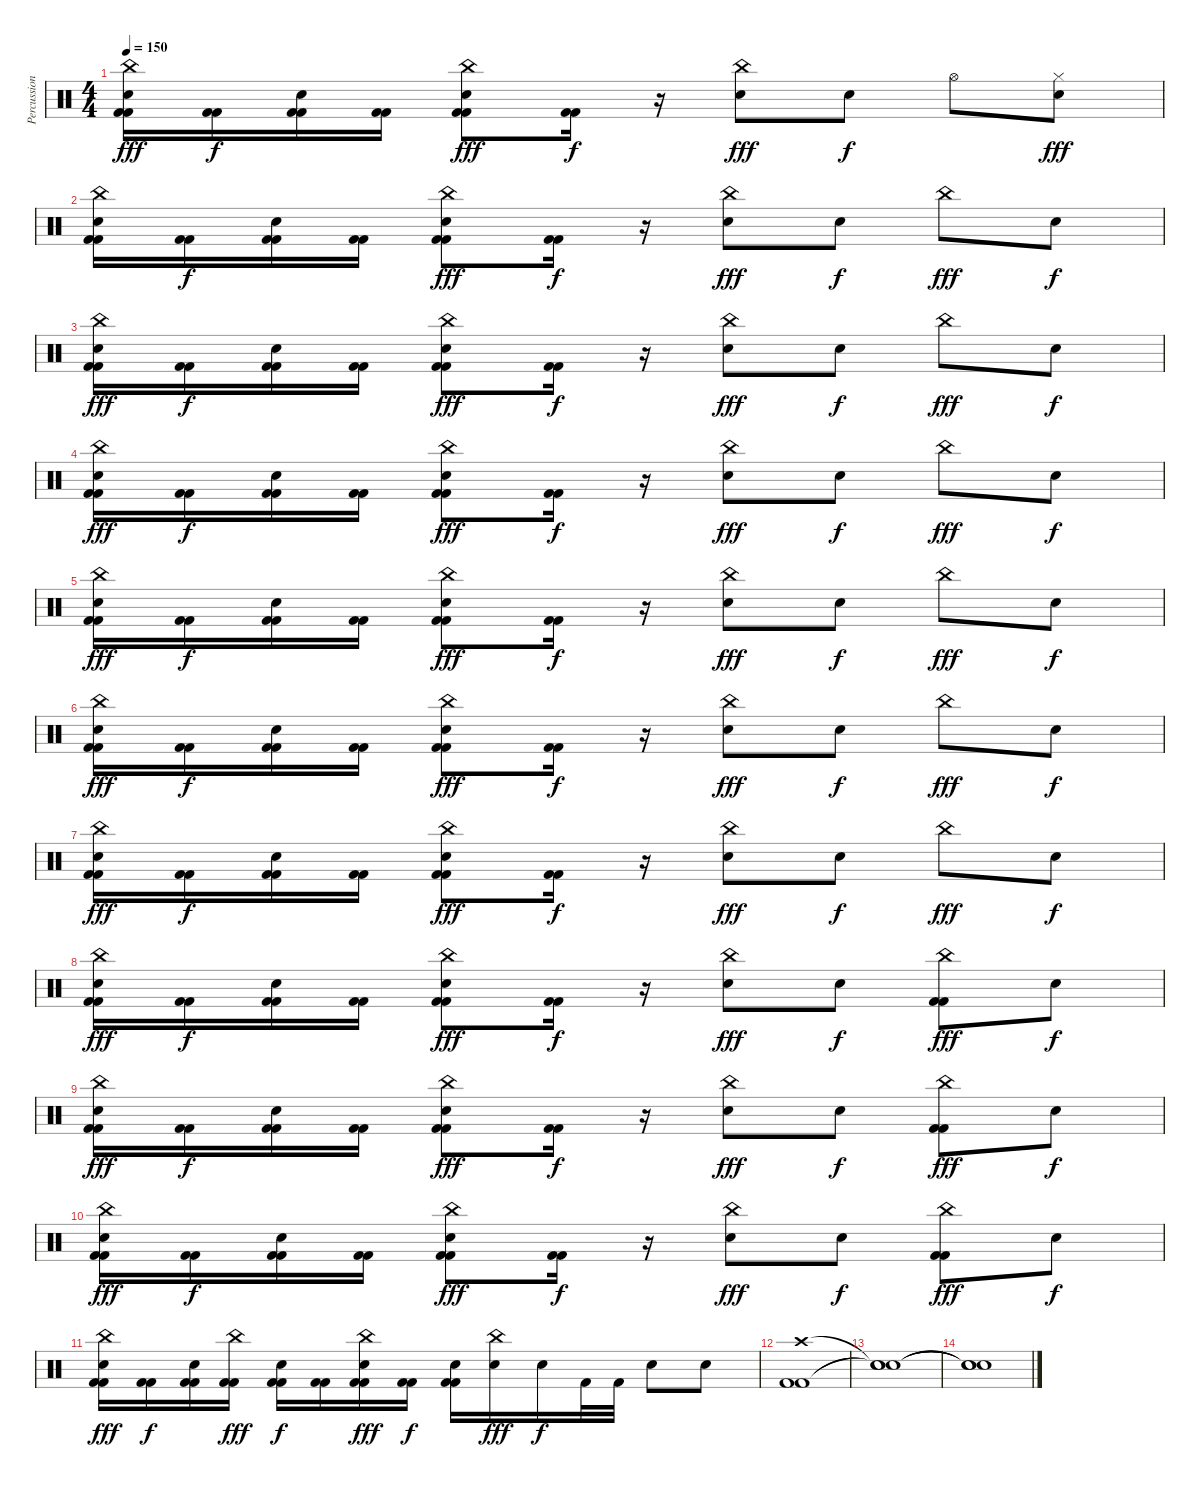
\track ("Percussions" "Percussion") {instrument percussion}
\staff {score}
\articulation defaults
\ts (4 4)
\tempo 150
\clef neutral
\ks c
("Kick (hit) 2" "Kick (hit) 2" "Electric Snare (hit)" "China (hit)").16{dy fff} ("Kick (hit) 2" "Kick (hit) 2").16{dy f} ("Kick (hit) 2" "Kick (hit) 2" "Electric Snare (hit)").16 ("Kick (hit) 2" "Kick (hit) 2").16 ("Kick (hit) 2" "Kick (hit) 2" "Electric Snare (hit)" "China (hit)").8{dy fff} ("Kick (hit) 2" "Kick (hit) 2").16{dy f} r.16 ("Electric Snare (hit)" "China (hit)").8{dy fff} "Electric Snare (hit)".8{dy f} "Hi-Hat (open)".8 ("Electric Snare (hit)" "Hi-Hat (closed)").8{dy fff} |
("Kick (hit) 2" "Kick (hit) 2" "Electric Snare (hit)" "China (hit)").16 ("Kick (hit) 2" "Kick (hit) 2").16{dy f} ("Kick (hit) 2" "Kick (hit) 2" "Electric Snare (hit)").16 ("Kick (hit) 2" "Kick (hit) 2").16 ("Kick (hit) 2" "Kick (hit) 2" "Electric Snare (hit)" "China (hit)").8{dy fff} ("Kick (hit) 2" "Kick (hit) 2").16{dy f} r.16 ("Electric Snare (hit)" "China (hit)").8{dy fff} "Electric Snare (hit)".8{dy f} "China (hit)".8{dy fff} "Electric Snare (hit)".8{dy f} |
("Kick (hit) 2" "Kick (hit) 2" "Electric Snare (hit)" "China (hit)").16{dy fff} ("Kick (hit) 2" "Kick (hit) 2").16{dy f} ("Kick (hit) 2" "Kick (hit) 2" "Electric Snare (hit)").16 ("Kick (hit) 2" "Kick (hit) 2").16 ("Kick (hit) 2" "Kick (hit) 2" "Electric Snare (hit)" "China (hit)").8{dy fff} ("Kick (hit) 2" "Kick (hit) 2").16{dy f} r.16 ("Electric Snare (hit)" "China (hit)").8{dy fff} "Electric Snare (hit)".8{dy f} "China (hit)".8{dy fff} "Electric Snare (hit)".8{dy f} |
("Kick (hit) 2" "Kick (hit) 2" "Electric Snare (hit)" "China (hit)").16{dy fff} ("Kick (hit) 2" "Kick (hit) 2").16{dy f} ("Kick (hit) 2" "Kick (hit) 2" "Electric Snare (hit)").16 ("Kick (hit) 2" "Kick (hit) 2").16 ("Kick (hit) 2" "Kick (hit) 2" "Electric Snare (hit)" "China (hit)").8{dy fff} ("Kick (hit) 2" "Kick (hit) 2").16{dy f} r.16 ("Electric Snare (hit)" "China (hit)").8{dy fff} "Electric Snare (hit)".8{dy f} "China (hit)".8{dy fff} "Electric Snare (hit)".8{dy f} |
("Kick (hit) 2" "Kick (hit) 2" "Electric Snare (hit)" "China (hit)").16{dy fff} ("Kick (hit) 2" "Kick (hit) 2").16{dy f} ("Kick (hit) 2" "Kick (hit) 2" "Electric Snare (hit)").16 ("Kick (hit) 2" "Kick (hit) 2").16 ("Kick (hit) 2" "Kick (hit) 2" "Electric Snare (hit)" "China (hit)").8{dy fff} ("Kick (hit) 2" "Kick (hit) 2").16{dy f} r.16 ("Electric Snare (hit)" "China (hit)").8{dy fff} "Electric Snare (hit)".8{dy f} "China (hit)".8{dy fff} "Electric Snare (hit)".8{dy f} |
("Kick (hit) 2" "Kick (hit) 2" "Electric Snare (hit)" "China (hit)").16{dy fff} ("Kick (hit) 2" "Kick (hit) 2").16{dy f} ("Kick (hit) 2" "Kick (hit) 2" "Electric Snare (hit)").16 ("Kick (hit) 2" "Kick (hit) 2").16 ("Kick (hit) 2" "Kick (hit) 2" "Electric Snare (hit)" "China (hit)").8{dy fff} ("Kick (hit) 2" "Kick (hit) 2").16{dy f} r.16 ("Electric Snare (hit)" "China (hit)").8{dy fff} "Electric Snare (hit)".8{dy f} "China (hit)".8{dy fff} "Electric Snare (hit)".8{dy f} |
("Kick (hit) 2" "Kick (hit) 2" "Electric Snare (hit)" "China (hit)").16{dy fff} ("Kick (hit) 2" "Kick (hit) 2").16{dy f} ("Kick (hit) 2" "Kick (hit) 2" "Electric Snare (hit)").16 ("Kick (hit) 2" "Kick (hit) 2").16 ("Kick (hit) 2" "Kick (hit) 2" "Electric Snare (hit)" "China (hit)").8{dy fff} ("Kick (hit) 2" "Kick (hit) 2").16{dy f} r.16 ("Electric Snare (hit)" "China (hit)").8{dy fff} "Electric Snare (hit)".8{dy f} "China (hit)".8{dy fff} "Electric Snare (hit)".8{dy f} |
("Kick (hit) 2" "Kick (hit) 2" "Electric Snare (hit)" "China (hit)").16{dy fff} ("Kick (hit) 2" "Kick (hit) 2").16{dy f} ("Kick (hit) 2" "Kick (hit) 2" "Electric Snare (hit)").16 ("Kick (hit) 2" "Kick (hit) 2").16 ("Kick (hit) 2" "Kick (hit) 2" "Electric Snare (hit)" "China (hit)").8{dy fff} ("Kick (hit) 2" "Kick (hit) 2").16{dy f} r.16 ("Electric Snare (hit)" "China (hit)").8{dy fff} "Electric Snare (hit)".8{dy f} ("Kick (hit) 2" "Kick (hit) 2" "China (hit)").8{dy fff} "Electric Snare (hit)".8{dy f} |
("Kick (hit) 2" "Kick (hit) 2" "Electric Snare (hit)" "China (hit)").16{dy fff} ("Kick (hit) 2" "Kick (hit) 2").16{dy f} ("Kick (hit) 2" "Kick (hit) 2" "Electric Snare (hit)").16 ("Kick (hit) 2" "Kick (hit) 2").16 ("Kick (hit) 2" "Kick (hit) 2" "Electric Snare (hit)" "China (hit)").8{dy fff} ("Kick (hit) 2" "Kick (hit) 2").16{dy f} r.16 ("Electric Snare (hit)" "China (hit)").8{dy fff} "Electric Snare (hit)".8{dy f} ("Kick (hit) 2" "Kick (hit) 2" "China (hit)").8{dy fff} "Electric Snare (hit)".8{dy f} |
("Kick (hit) 2" "Kick (hit) 2" "Electric Snare (hit)" "China (hit)").16{dy fff} ("Kick (hit) 2" "Kick (hit) 2").16{dy f} ("Kick (hit) 2" "Kick (hit) 2" "Electric Snare (hit)").16 ("Kick (hit) 2" "Kick (hit) 2").16 ("Kick (hit) 2" "Kick (hit) 2" "Electric Snare (hit)" "China (hit)").8{dy fff} ("Kick (hit) 2" "Kick (hit) 2").16{dy f} r.16 ("Electric Snare (hit)" "China (hit)").8{dy fff} "Electric Snare (hit)".8{dy f} ("Kick (hit) 2" "Kick (hit) 2" "China (hit)").8{dy fff} "Electric Snare (hit)".8{dy f} |
("Kick (hit) 2" "Kick (hit) 2" "Electric Snare (hit)" "China (hit)").16{dy fff} ("Kick (hit) 2" "Kick (hit) 2").16{dy f} ("Kick (hit) 2" "Kick (hit) 2" "Electric Snare (hit)").16 ("Kick (hit) 2" "Kick (hit) 2" "China (hit)").16{dy fff} ("Kick (hit) 2" "Kick (hit) 2" "Electric Snare (hit)").16{dy f} ("Kick (hit) 2" "Kick (hit) 2").16 ("Kick (hit) 2" "Kick (hit) 2" "Electric Snare (hit)" "China (hit)").16{dy fff} ("Kick (hit) 2" "Kick (hit) 2").16{dy f} ("Kick (hit) 2" "Kick (hit) 2" "Electric Snare (hit)").16 ("Electric Snare (hit)" "China (hit)").16{dy fff} "Electric Snare (hit)".16{dy f} "Kick (hit) 2".32 "Kick (hit) 2".32 "Electric Snare (hit)".8 "Electric Snare (hit)".8 |
("Kick (hit) 2" "Kick (hit) 2" "Crash high (hit)").1 |
("Snare (hit)"{t} "Snare (hit)"{t} "Snare (hit)"{t}).1 |
("Snare (hit)"{t} "Snare (hit)"{t} "Snare (hit)"{t}).1
